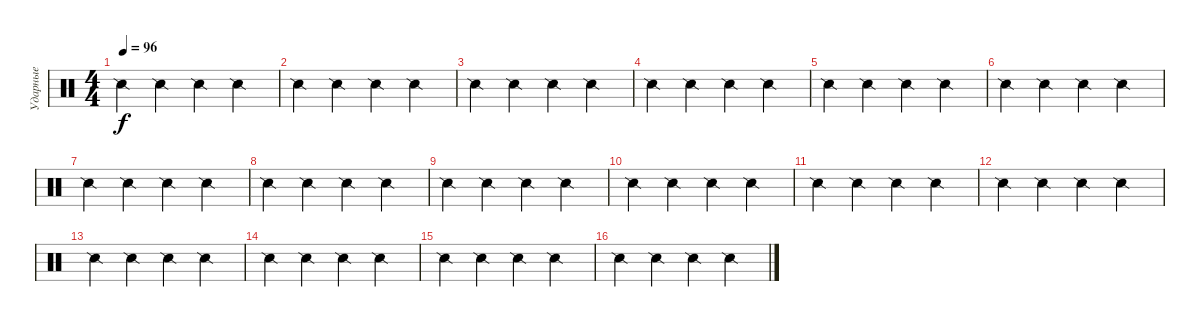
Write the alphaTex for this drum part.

\track ("Ударные" "Ударные") {instrument percussion}
\staff {score}
\articulation defaults
\ts (4 4)
\tempo 96
\clef neutral
\ks c "Snare (side stick) 2".4{dy f} "Snare (side stick) 2".4 "Snare (side stick) 2".4 "Snare (side stick) 2".4
|
"Snare (side stick) 2".4 "Snare (side stick) 2".4 "Snare (side stick) 2".4 "Snare (side stick) 2".4 |
"Snare (side stick) 2".4 "Snare (side stick) 2".4 "Snare (side stick) 2".4 "Snare (side stick) 2".4 |
"Snare (side stick) 2".4 "Snare (side stick) 2".4 "Snare (side stick) 2".4 "Snare (side stick) 2".4 |
"Snare (side stick) 2".4 "Snare (side stick) 2".4 "Snare (side stick) 2".4 "Snare (side stick) 2".4 |
"Snare (side stick) 2".4 "Snare (side stick) 2".4 "Snare (side stick) 2".4 "Snare (side stick) 2".4 |
"Snare (side stick) 2".4 "Snare (side stick) 2".4 "Snare (side stick) 2".4 "Snare (side stick) 2".4 |
"Snare (side stick) 2".4 "Snare (side stick) 2".4 "Snare (side stick) 2".4 "Snare (side stick) 2".4 |
"Snare (side stick) 2".4 "Snare (side stick) 2".4 "Snare (side stick) 2".4 "Snare (side stick) 2".4 |
"Snare (side stick) 2".4 "Snare (side stick) 2".4 "Snare (side stick) 2".4 "Snare (side stick) 2".4 |
"Snare (side stick) 2".4 "Snare (side stick) 2".4 "Snare (side stick) 2".4 "Snare (side stick) 2".4 |
"Snare (side stick) 2".4 "Snare (side stick) 2".4 "Snare (side stick) 2".4 "Snare (side stick) 2".4 |
"Snare (side stick) 2".4 "Snare (side stick) 2".4 "Snare (side stick) 2".4 "Snare (side stick) 2".4 |
"Snare (side stick) 2".4 "Snare (side stick) 2".4 "Snare (side stick) 2".4 "Snare (side stick) 2".4 |
"Snare (side stick) 2".4 "Snare (side stick) 2".4 "Snare (side stick) 2".4 "Snare (side stick) 2".4 |
"Snare (side stick) 2".4 "Snare (side stick) 2".4 "Snare (side stick) 2".4 "Snare (side stick) 2".4
